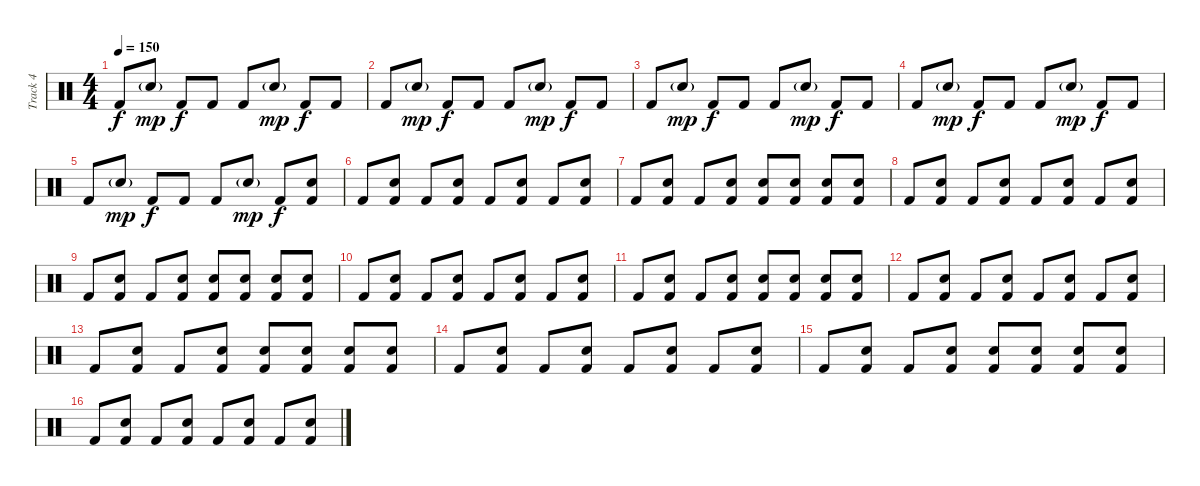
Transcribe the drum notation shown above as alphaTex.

\track ("Track 4" "Track 4") {instrument percussion}
\staff {score}
\articulation defaults
\ts (4 4)
\tempo 150
\clef neutral
\ks c "Kick (hit) 2".8{dy f} "Snare (hit) 2"{g}.8{dy mp} "Kick (hit) 2".8{dy f} "Kick (hit) 2".8 "Kick (hit) 2".8 "Snare (hit) 2"{g}.8{dy mp} "Kick (hit) 2".8{dy f} "Kick (hit) 2".8
|
"Kick (hit) 2".8 "Snare (hit) 2"{g}.8{dy mp} "Kick (hit) 2".8{dy f} "Kick (hit) 2".8 "Kick (hit) 2".8 "Snare (hit) 2"{g}.8{dy mp} "Kick (hit) 2".8{dy f} "Kick (hit) 2".8 |
"Kick (hit) 2".8 "Snare (hit) 2"{g}.8{dy mp} "Kick (hit) 2".8{dy f} "Kick (hit) 2".8 "Kick (hit) 2".8 "Snare (hit) 2"{g}.8{dy mp} "Kick (hit) 2".8{dy f} "Kick (hit) 2".8 |
"Kick (hit) 2".8 "Snare (hit) 2"{g}.8{dy mp} "Kick (hit) 2".8{dy f} "Kick (hit) 2".8 "Kick (hit) 2".8 "Snare (hit) 2"{g}.8{dy mp} "Kick (hit) 2".8{dy f} "Kick (hit) 2".8 |
"Kick (hit) 2".8 "Snare (hit) 2"{g}.8{dy mp} "Kick (hit) 2".8{dy f} "Kick (hit) 2".8 "Kick (hit) 2".8 "Snare (hit) 2"{g}.8{dy mp} "Kick (hit) 2".8{dy f} ("Kick (hit) 2" "Snare (hit) 2").8 |
"Kick (hit) 2".8 ("Kick (hit) 2" "Snare (hit) 2").8 "Kick (hit) 2".8 ("Kick (hit) 2" "Snare (hit) 2").8 "Kick (hit) 2".8 ("Kick (hit) 2" "Snare (hit) 2").8 "Kick (hit) 2".8 ("Kick (hit) 2" "Snare (hit) 2").8 |
"Kick (hit) 2".8 ("Kick (hit) 2" "Snare (hit) 2").8 "Kick (hit) 2".8 ("Kick (hit) 2" "Snare (hit) 2").8 ("Kick (hit) 2" "Snare (hit) 2").8 ("Kick (hit) 2" "Snare (hit) 2").8 ("Kick (hit) 2" "Snare (hit) 2").8 ("Kick (hit) 2" "Snare (hit) 2").8 |
"Kick (hit) 2".8 ("Kick (hit) 2" "Snare (hit) 2").8 "Kick (hit) 2".8 ("Kick (hit) 2" "Snare (hit) 2").8 "Kick (hit) 2".8 ("Kick (hit) 2" "Snare (hit) 2").8 "Kick (hit) 2".8 ("Kick (hit) 2" "Snare (hit) 2").8 |
"Kick (hit) 2".8 ("Kick (hit) 2" "Snare (hit) 2").8 "Kick (hit) 2".8 ("Kick (hit) 2" "Snare (hit) 2").8 ("Kick (hit) 2" "Snare (hit) 2").8 ("Kick (hit) 2" "Snare (hit) 2").8 ("Kick (hit) 2" "Snare (hit) 2").8 ("Kick (hit) 2" "Snare (hit) 2").8 |
"Kick (hit) 2".8 ("Kick (hit) 2" "Snare (hit) 2").8 "Kick (hit) 2".8 ("Kick (hit) 2" "Snare (hit) 2").8 "Kick (hit) 2".8 ("Kick (hit) 2" "Snare (hit) 2").8 "Kick (hit) 2".8 ("Kick (hit) 2" "Snare (hit) 2").8 |
"Kick (hit) 2".8 ("Kick (hit) 2" "Snare (hit) 2").8 "Kick (hit) 2".8 ("Kick (hit) 2" "Snare (hit) 2").8 ("Kick (hit) 2" "Snare (hit) 2").8 ("Kick (hit) 2" "Snare (hit) 2").8 ("Kick (hit) 2" "Snare (hit) 2").8 ("Kick (hit) 2" "Snare (hit) 2").8 |
"Kick (hit) 2".8 ("Kick (hit) 2" "Snare (hit) 2").8 "Kick (hit) 2".8 ("Kick (hit) 2" "Snare (hit) 2").8 "Kick (hit) 2".8 ("Kick (hit) 2" "Snare (hit) 2").8 "Kick (hit) 2".8 ("Kick (hit) 2" "Snare (hit) 2").8 |
"Kick (hit) 2".8 ("Kick (hit) 2" "Snare (hit) 2").8 "Kick (hit) 2".8 ("Kick (hit) 2" "Snare (hit) 2").8 ("Kick (hit) 2" "Snare (hit) 2").8 ("Kick (hit) 2" "Snare (hit) 2").8 ("Kick (hit) 2" "Snare (hit) 2").8 ("Kick (hit) 2" "Snare (hit) 2").8 |
"Kick (hit) 2".8 ("Kick (hit) 2" "Snare (hit) 2").8 "Kick (hit) 2".8 ("Kick (hit) 2" "Snare (hit) 2").8 "Kick (hit) 2".8 ("Kick (hit) 2" "Snare (hit) 2").8 "Kick (hit) 2".8 ("Kick (hit) 2" "Snare (hit) 2").8 |
"Kick (hit) 2".8 ("Kick (hit) 2" "Snare (hit) 2").8 "Kick (hit) 2".8 ("Kick (hit) 2" "Snare (hit) 2").8 ("Kick (hit) 2" "Snare (hit) 2").8 ("Kick (hit) 2" "Snare (hit) 2").8 ("Kick (hit) 2" "Snare (hit) 2").8 ("Kick (hit) 2" "Snare (hit) 2").8 |
"Kick (hit) 2".8 ("Kick (hit) 2" "Snare (hit) 2").8 "Kick (hit) 2".8 ("Kick (hit) 2" "Snare (hit) 2").8 "Kick (hit) 2".8 ("Kick (hit) 2" "Snare (hit) 2").8 "Kick (hit) 2".8 ("Kick (hit) 2" "Snare (hit) 2").8
